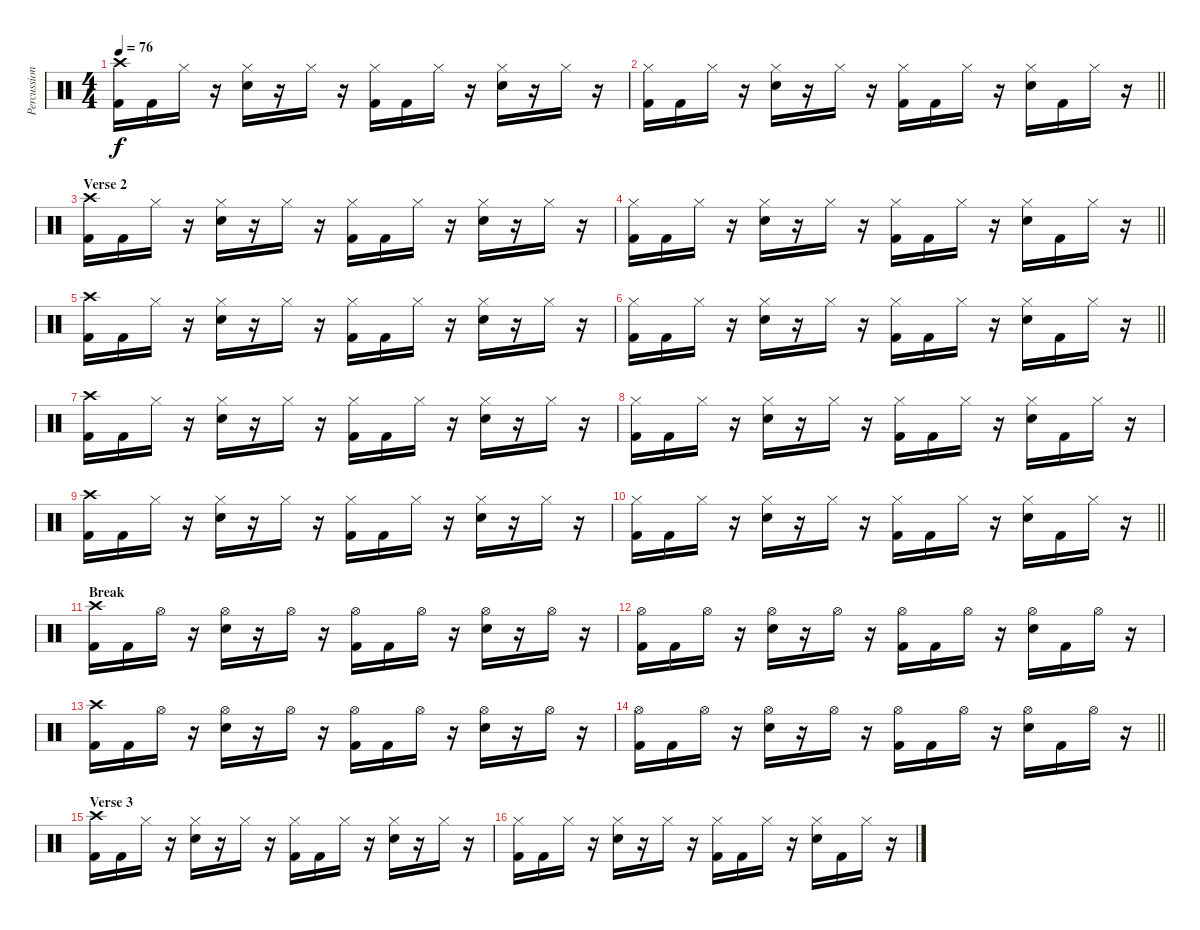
\track ("Percussion" "Percussion") {instrument percussion}
\staff {score}
\articulation defaults
\ts (4 4)
\tempo 76
\clef neutral
\ks c
("Crash high (hit)" "Kick (hit) 2").16{dy f} "Kick (hit) 2".16 "Hi-Hat (closed)".16 r.16 ("Hi-Hat (closed)" "Electric Snare (hit)").16 r.16 "Hi-Hat (closed)".16 r.16 ("Hi-Hat (closed)" "Kick (hit) 2").16 "Kick (hit) 2".16 "Hi-Hat (closed)".16 r.16 ("Hi-Hat (closed)" "Electric Snare (hit)").16 r.16 "Hi-Hat (closed)".16 r.16 |
\barLineRight lightlight
("Hi-Hat (closed)" "Kick (hit) 2").16 "Kick (hit) 2".16 "Hi-Hat (closed)".16 r.16 ("Hi-Hat (closed)" "Electric Snare (hit)").16 r.16 "Hi-Hat (closed)".16 r.16 ("Hi-Hat (closed)" "Kick (hit) 2").16 "Kick (hit) 2".16 "Hi-Hat (closed)".16 r.16 ("Hi-Hat (closed)" "Electric Snare (hit)").16 "Kick (hit) 2".16 "Hi-Hat (closed)".16 r.16 |
\section ("" "Verse 2")
("Crash high (hit)" "Kick (hit) 2").16 "Kick (hit) 2".16 "Hi-Hat (closed)".16 r.16 ("Hi-Hat (closed)" "Electric Snare (hit)").16 r.16 "Hi-Hat (closed)".16 r.16 ("Hi-Hat (closed)" "Kick (hit) 2").16 "Kick (hit) 2".16 "Hi-Hat (closed)".16 r.16 ("Hi-Hat (closed)" "Electric Snare (hit)").16 r.16 "Hi-Hat (closed)".16 r.16 |
\barLineRight lightlight
("Hi-Hat (closed)" "Kick (hit) 2").16 "Kick (hit) 2".16 "Hi-Hat (closed)".16 r.16 ("Hi-Hat (closed)" "Electric Snare (hit)").16 r.16 "Hi-Hat (closed)".16 r.16 ("Hi-Hat (closed)" "Kick (hit) 2").16 "Kick (hit) 2".16 "Hi-Hat (closed)".16 r.16 ("Hi-Hat (closed)" "Electric Snare (hit)").16 "Kick (hit) 2".16 "Hi-Hat (closed)".16 r.16 |
("Crash high (hit)" "Kick (hit) 2").16 "Kick (hit) 2".16 "Hi-Hat (closed)".16 r.16 ("Hi-Hat (closed)" "Electric Snare (hit)").16 r.16 "Hi-Hat (closed)".16 r.16 ("Hi-Hat (closed)" "Kick (hit) 2").16 "Kick (hit) 2".16 "Hi-Hat (closed)".16 r.16 ("Hi-Hat (closed)" "Electric Snare (hit)").16 r.16 "Hi-Hat (closed)".16 r.16 |
\barLineRight lightlight
("Hi-Hat (closed)" "Kick (hit) 2").16 "Kick (hit) 2".16 "Hi-Hat (closed)".16 r.16 ("Hi-Hat (closed)" "Electric Snare (hit)").16 r.16 "Hi-Hat (closed)".16 r.16 ("Hi-Hat (closed)" "Kick (hit) 2").16 "Kick (hit) 2".16 "Hi-Hat (closed)".16 r.16 ("Hi-Hat (closed)" "Electric Snare (hit)").16 "Kick (hit) 2".16 "Hi-Hat (closed)".16 r.16 |
("Crash high (hit)" "Kick (hit) 2").16 "Kick (hit) 2".16 "Hi-Hat (closed)".16 r.16 ("Hi-Hat (closed)" "Electric Snare (hit)").16 r.16 "Hi-Hat (closed)".16 r.16 ("Hi-Hat (closed)" "Kick (hit) 2").16 "Kick (hit) 2".16 "Hi-Hat (closed)".16 r.16 ("Hi-Hat (closed)" "Electric Snare (hit)").16 r.16 "Hi-Hat (closed)".16 r.16 |
("Hi-Hat (closed)" "Kick (hit) 2").16 "Kick (hit) 2".16 "Hi-Hat (closed)".16 r.16 ("Hi-Hat (closed)" "Electric Snare (hit)").16 r.16 "Hi-Hat (closed)".16 r.16 ("Hi-Hat (closed)" "Kick (hit) 2").16 "Kick (hit) 2".16 "Hi-Hat (closed)".16 r.16 ("Hi-Hat (closed)" "Electric Snare (hit)").16 "Kick (hit) 2".16 "Hi-Hat (closed)".16 r.16 |
("Crash high (hit)" "Kick (hit) 2").16 "Kick (hit) 2".16 "Hi-Hat (closed)".16 r.16 ("Hi-Hat (closed)" "Electric Snare (hit)").16 r.16 "Hi-Hat (closed)".16 r.16 ("Hi-Hat (closed)" "Kick (hit) 2").16 "Kick (hit) 2".16 "Hi-Hat (closed)".16 r.16 ("Hi-Hat (closed)" "Electric Snare (hit)").16 r.16 "Hi-Hat (closed)".16 r.16 |
\barLineRight lightlight
("Hi-Hat (closed)" "Kick (hit) 2").16 "Kick (hit) 2".16 "Hi-Hat (closed)".16 r.16 ("Hi-Hat (closed)" "Electric Snare (hit)").16 r.16 "Hi-Hat (closed)".16 r.16 ("Hi-Hat (closed)" "Kick (hit) 2").16 "Kick (hit) 2".16 "Hi-Hat (closed)".16 r.16 ("Hi-Hat (closed)" "Electric Snare (hit)").16 "Kick (hit) 2".16 "Hi-Hat (closed)".16 r.16 |
\section ("" "Break")
("Crash high (hit)" "Kick (hit) 2").16 "Kick (hit) 2".16 "Hi-Hat (open)".16 r.16 ("Hi-Hat (open)" "Electric Snare (hit)").16 r.16 "Hi-Hat (open)".16 r.16 ("Hi-Hat (open)" "Kick (hit) 2").16 "Kick (hit) 2".16 "Hi-Hat (open)".16 r.16 ("Hi-Hat (open)" "Electric Snare (hit)").16 r.16 "Hi-Hat (open)".16 r.16 |
("Hi-Hat (open)" "Kick (hit) 2").16 "Kick (hit) 2".16 "Hi-Hat (open)".16 r.16 ("Hi-Hat (open)" "Electric Snare (hit)").16 r.16 "Hi-Hat (open)".16 r.16 ("Hi-Hat (open)" "Kick (hit) 2").16 "Kick (hit) 2".16 "Hi-Hat (open)".16 r.16 ("Hi-Hat (open)" "Electric Snare (hit)").16 "Kick (hit) 2".16 "Hi-Hat (open)".16 r.16 |
("Crash high (hit)" "Kick (hit) 2").16 "Kick (hit) 2".16 "Hi-Hat (open)".16 r.16 ("Hi-Hat (open)" "Electric Snare (hit)").16 r.16 "Hi-Hat (open)".16 r.16 ("Hi-Hat (open)" "Kick (hit) 2").16 "Kick (hit) 2".16 "Hi-Hat (open)".16 r.16 ("Hi-Hat (open)" "Electric Snare (hit)").16 r.16 "Hi-Hat (open)".16 r.16 |
\barLineRight lightlight
("Hi-Hat (open)" "Kick (hit) 2").16 "Kick (hit) 2".16 "Hi-Hat (open)".16 r.16 ("Hi-Hat (open)" "Electric Snare (hit)").16 r.16 "Hi-Hat (open)".16 r.16 ("Hi-Hat (open)" "Kick (hit) 2").16 "Kick (hit) 2".16 "Hi-Hat (open)".16 r.16 ("Hi-Hat (open)" "Electric Snare (hit)").16 "Kick (hit) 2".16 "Hi-Hat (open)".16 r.16 |
\section ("" "Verse 3")
("Crash high (hit)" "Kick (hit) 2").16 "Kick (hit) 2".16 "Hi-Hat (closed)".16 r.16 ("Hi-Hat (closed)" "Electric Snare (hit)").16 r.16 "Hi-Hat (closed)".16 r.16 ("Hi-Hat (closed)" "Kick (hit) 2").16 "Kick (hit) 2".16 "Hi-Hat (closed)".16 r.16 ("Hi-Hat (closed)" "Electric Snare (hit)").16 r.16 "Hi-Hat (closed)".16 r.16 |
("Hi-Hat (closed)" "Kick (hit) 2").16 "Kick (hit) 2".16 "Hi-Hat (closed)".16 r.16 ("Hi-Hat (closed)" "Electric Snare (hit)").16 r.16 "Hi-Hat (closed)".16 r.16 ("Hi-Hat (closed)" "Kick (hit) 2").16 "Kick (hit) 2".16 "Hi-Hat (closed)".16 r.16 ("Hi-Hat (closed)" "Electric Snare (hit)").16 "Kick (hit) 2".16 "Hi-Hat (closed)".16 r.16
